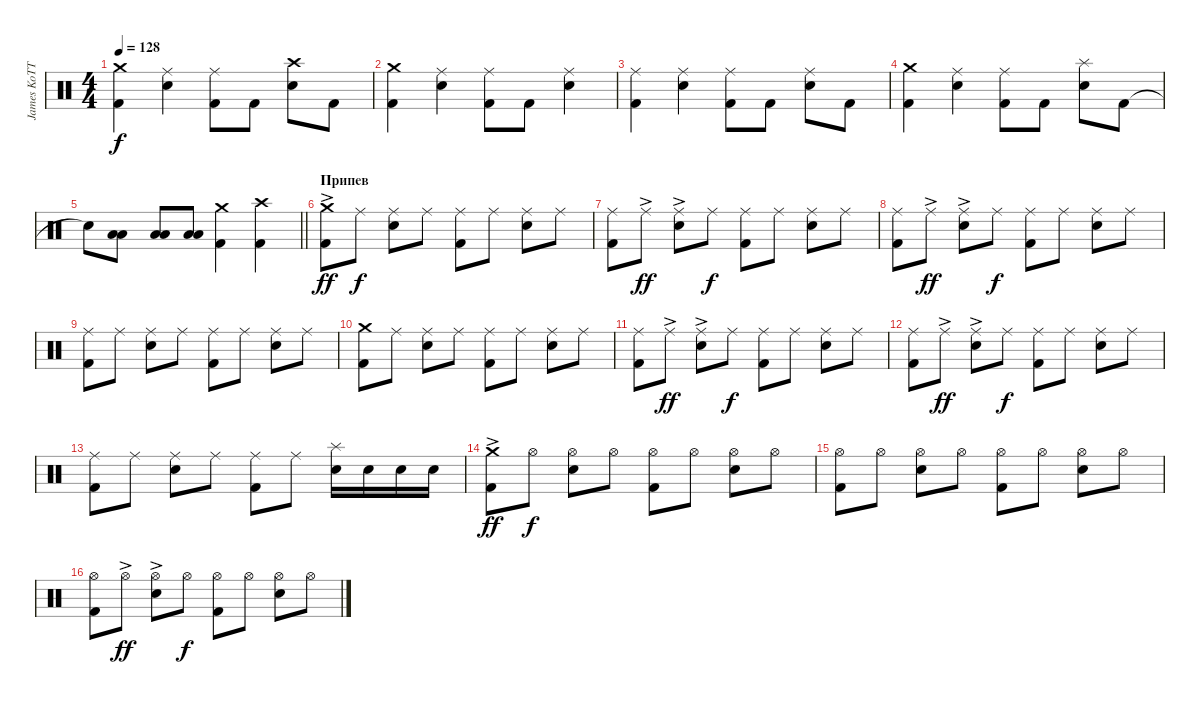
\track ("James KoTTak" "James KoTT") {instrument percussion}
\staff {score}
\articulation defaults
\ts (4 4)
\tempo 128
\clef neutral
\ks c
("Crash medium (hit)" "Kick (hit) 2").4{dy f} ("Ride (middle)" "Snare (hit) 2").4 ("Ride (middle)" "Kick (hit) 2").8 "Kick (hit) 2".8 ("Crash high (hit)" "Snare (hit) 2").8 "Kick (hit) 2".8 |
("Crash medium (hit)" "Kick (hit) 2").4 ("Ride (middle)" "Snare (hit) 2").4 ("Ride (middle)" "Kick (hit) 2").8 "Kick (hit) 2".8 ("Ride (middle)" "Snare (hit) 2").4 |
("Ride (middle)" "Kick (hit) 2").4 ("Ride (middle)" "Snare (hit) 2").4 ("Ride (middle)" "Kick (hit) 2").8 "Kick (hit) 2".8 ("Ride (middle)" "Snare (hit) 2").8 "Kick (hit) 2".8 |
("Crash medium (hit)" "Kick (hit) 2").4 ("Ride (middle)" "Snare (hit) 2").4 ("Ride (middle)" "Kick (hit) 2").8 "Kick (hit) 2".8 ("Splash (hit)" "Snare (hit) 2").8 "Kick (hit) 2".8 |
\barLineRight lightlight "Snare (hit)"{t}.8
("Low Tom (hit)" "Low Tom (hit)").8{bd 120} ("Low Tom (hit)" "Low Tom (hit)").8{bd 120} ("Low Tom (hit)" "Low Tom (hit)").8{bd 120} ("Crash medium (hit)" "Kick (hit) 2").4 ("Crash high (hit)" "Kick (hit) 2").4 |
\section ("" "Припев")
("Crash medium (hit)"{ac} "Kick (hit) 2").8{dy ff} "Ride (middle)".8{dy f} ("Ride (middle)" "Snare (hit) 2").8 "Ride (middle)".8 ("Ride (middle)" "Kick (hit) 2").8 "Ride (middle)".8 ("Ride (middle)" "Snare (hit) 2").8 "Ride (middle)".8 |
("Kick (hit) 2" "Ride (middle)").8 "Ride (middle)"{ac}.8{dy ff} ("Ride (middle)"{ac} "Snare (hit) 2").8 "Ride (middle)".8{dy f} ("Ride (middle)" "Kick (hit) 2").8 "Ride (middle)".8 ("Ride (middle)" "Snare (hit) 2").8 "Ride (middle)".8 |
("Kick (hit) 2" "Ride (middle)").8 "Ride (middle)"{ac}.8{dy ff} ("Ride (middle)"{ac} "Snare (hit) 2").8 "Ride (middle)".8{dy f} ("Ride (middle)" "Kick (hit) 2").8 "Ride (middle)".8 ("Ride (middle)" "Snare (hit) 2").8 "Ride (middle)".8 |
("Kick (hit) 2" "Ride (middle)").8 "Ride (middle)".8 ("Ride (middle)" "Snare (hit) 2").8 "Ride (middle)".8 ("Ride (middle)" "Kick (hit) 2").8 "Ride (middle)".8 ("Ride (middle)" "Snare (hit) 2").8 "Ride (middle)".8 |
("Kick (hit) 2" "Crash medium (hit)").8 "Ride (middle)".8 ("Ride (middle)" "Snare (hit) 2").8 "Ride (middle)".8 ("Ride (middle)" "Kick (hit) 2").8 "Ride (middle)".8 ("Ride (middle)" "Snare (hit) 2").8 "Ride (middle)".8 |
("Kick (hit) 2" "Ride (middle)").8 "Ride (middle)"{ac}.8{dy ff} ("Ride (middle)"{ac} "Snare (hit) 2").8 "Ride (middle)".8{dy f} ("Ride (middle)" "Kick (hit) 2").8 "Ride (middle)".8 ("Ride (middle)" "Snare (hit) 2").8 "Ride (middle)".8 |
("Kick (hit) 2" "Ride (middle)").8 "Ride (middle)"{ac}.8{dy ff} ("Ride (middle)"{ac} "Snare (hit) 2").8 "Ride (middle)".8{dy f} ("Ride (middle)" "Kick (hit) 2").8 "Ride (middle)".8 ("Ride (middle)" "Snare (hit) 2").8 "Ride (middle)".8 |
("Kick (hit) 2" "Ride (middle)").8 "Ride (middle)".8 ("Ride (middle)" "Snare (hit) 2").8 "Ride (middle)".8 ("Ride (middle)" "Kick (hit) 2").8 "Ride (middle)".8 ("Splash (hit)" "Snare (hit) 2").16 "Snare (hit) 2".16 "Snare (hit) 2".16 "Snare (hit) 2".16 |
("Crash medium (hit)"{ac} "Kick (hit) 2").8{dy ff} "Hi-Hat (open)".8{dy f} ("Hi-Hat (open)" "Snare (hit) 2").8 "Hi-Hat (open)".8 ("Hi-Hat (open)" "Kick (hit) 2").8 "Hi-Hat (open)".8 ("Hi-Hat (open)" "Snare (hit) 2").8 "Hi-Hat (open)".8 |
("Kick (hit) 2" "Hi-Hat (open)").8 "Hi-Hat (open)".8 ("Hi-Hat (open)" "Snare (hit) 2").8 "Hi-Hat (open)".8 ("Hi-Hat (open)" "Kick (hit) 2").8 "Hi-Hat (open)".8 ("Hi-Hat (open)" "Snare (hit) 2").8 "Hi-Hat (open)".8 |
("Kick (hit) 2" "Hi-Hat (open)").8 "Hi-Hat (open)"{ac}.8{dy ff} ("Hi-Hat (open)"{ac} "Snare (hit) 2").8 "Hi-Hat (open)".8{dy f} ("Hi-Hat (open)" "Kick (hit) 2").8 "Hi-Hat (open)".8 ("Hi-Hat (open)" "Snare (hit) 2").8 "Hi-Hat (open)".8
